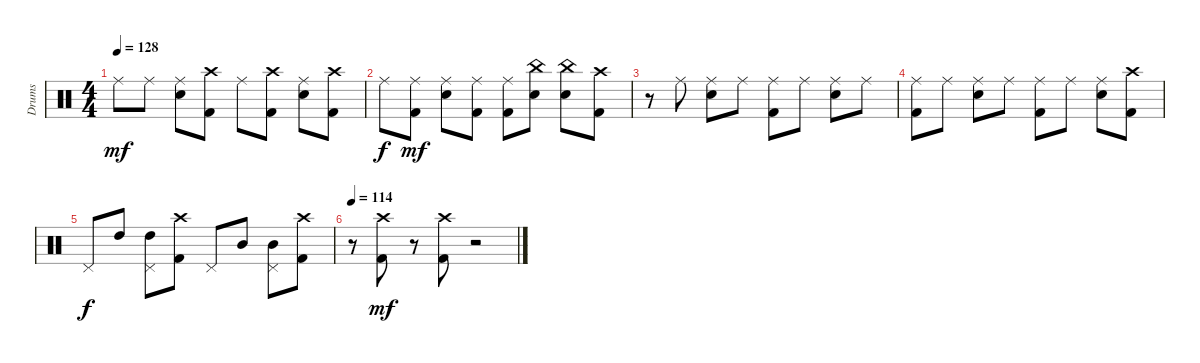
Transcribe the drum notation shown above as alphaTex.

\track ("Drums" "Drums") {instrument percussion}
\staff {score}
\articulation defaults
\ts (4 4)
\tempo 128
\clef neutral
\ks c "Ride (middle)".8{dy mf} "Ride (middle)".8
("Ride (middle)" "Snare (hit) 2").8 ("Crash high (hit)" "Kick (hit) 2").8 "Ride (middle)".8 ("Crash high (hit)" "Kick (hit) 2").8 ("Ride (middle)" "Snare (hit) 2").8 ("Crash high (hit)" "Kick (hit) 2").8 |
"Ride (middle)".8{dy f} ("Ride (middle)" "Kick (hit) 2").8{dy mf} ("Ride (middle)" "Snare (hit) 2").8 ("Ride (middle)" "Kick (hit) 2").8 ("Kick (hit) 2" "Ride (middle)").8 ("China (hit)" "Snare (hit) 2").8 ("China (hit)" "Snare (hit) 2").8 ("Crash high (hit)" "Kick (hit) 2").8 |
r.8 "Ride (middle)".8 ("Ride (middle)" "Snare (hit) 2").8 "Ride (middle)".8 ("Ride (middle)" "Kick (hit) 2").8 "Ride (middle)".8 ("Ride (middle)" "Snare (hit) 2").8 "Ride (middle)".8 |
("Ride (middle)" "Kick (hit) 2").8 "Ride (middle)".8 ("Ride (middle)" "Snare (hit) 2").8 "Ride (middle)".8 ("Ride (middle)" "Kick (hit) 2").8 "Ride (middle)".8 ("Ride (middle)" "Snare (hit) 2").8 ("Crash high (hit)" "Kick (hit) 2").8 |
"Pedal Hi-Hat (hit)".8{dy f} "High Tom (hit)".8 ("Pedal Hi-Hat (hit)" "High Tom (hit)").8 ("Crash high (hit)" "Kick (hit) 2").8 "Pedal Hi-Hat (hit)".8 "Mid Tom (hit)".8 ("Pedal Hi-Hat (hit)" "Mid Tom (hit)").8 ("Crash high (hit)" "Kick (hit) 2").8 |
\tempo 114
r.8 ("Crash high (hit)" "Kick (hit) 2").8{dy mf} r.8 ("Crash high (hit)" "Kick (hit) 2").8 r.2
